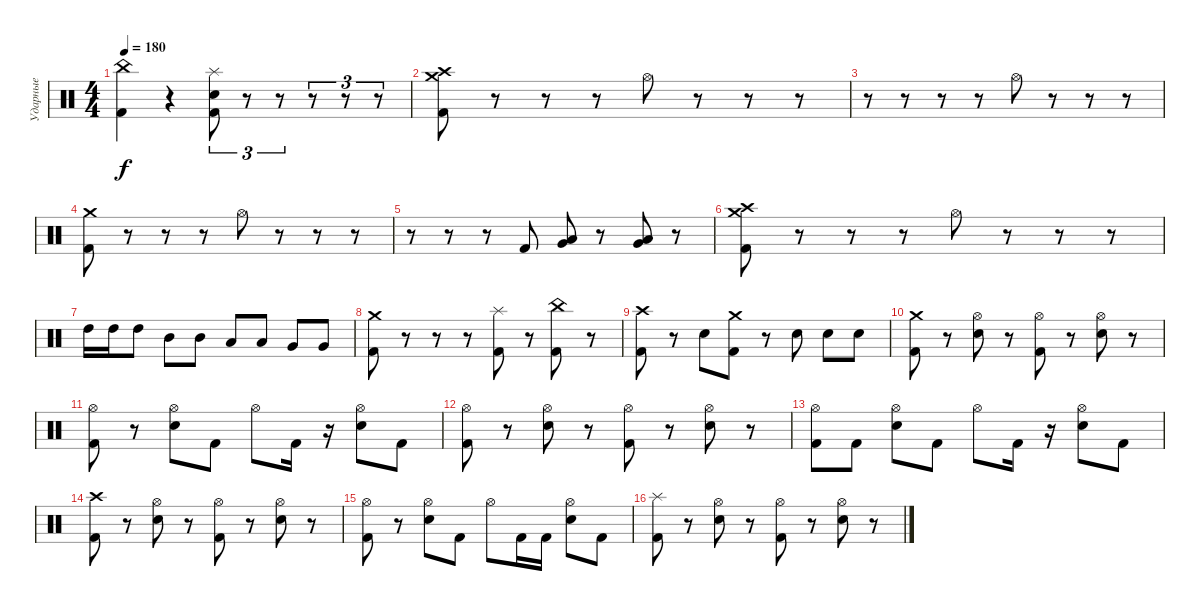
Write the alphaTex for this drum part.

\track ("Ударные" "Ударные") {instrument percussion}
\staff {score}
\articulation defaults
\ts (4 4)
\tempo 180
\clef neutral
\ks c
("Kick (hit) 2" "China (hit)").4{dy f} r.4 ("Kick (hit) 2" "Electric Snare (hit)" "Splash (hit)").8{tu (3 2)} r.8{tu (3 2)} r.8{tu (3 2)} r.8{tu (3 2)} r.8{tu (3 2)} r.8{tu (3 2)} |
("Kick (hit) 2" "Crash high (hit)" "Crash medium (hit)").8 r.8 r.8 r.8 "Hi-Hat (open)".8 r.8 r.8 r.8 |
r.8 r.8 r.8 r.8 "Hi-Hat (open)".8 r.8 r.8 r.8 |
("Kick (hit) 2" "Crash medium (hit)").8 r.8 r.8 r.8 "Hi-Hat (open)".8 r.8 r.8 r.8 |
r.8 r.8 r.8 "Kick (hit) 2".8 ("Very Low Tom (hit)" "Low Tom (hit)").8 r.8 ("Low Floor Tom (hit)" "Very Low Tom (hit)").8 r.8 |
("Kick (hit) 2" "Crash high (hit)" "Crash medium (hit)").8 r.8 r.8 r.8 "Hi-Hat (open)".8 r.8 r.8 r.8 |
"High Tom (hit)".16 "High Tom (hit)".16 "High Tom (hit)".8 "Mid Tom (hit)".8 "Mid Tom (hit)".8 "Low Tom (hit)".8 "Low Tom (hit)".8 "Very Low Tom (hit)".8 "Very Low Tom (hit)".8 |
("Kick (hit) 2" "Crash medium (hit)").8 r.8 r.8 r.8 ("Kick (hit) 2" "Splash (hit)").8 r.8 ("Kick (hit) 2" "China (hit)").8 r.8 |
("Kick (hit) 2" "Crash high (hit)").8 r.8 "Electric Snare (hit)".8 ("Kick (hit) 2" "Crash medium (hit)").8 r.8 "Electric Snare (hit)".8 "Electric Snare (hit)".8 "Electric Snare (hit)".8 |
("Kick (hit) 2" "Crash medium (hit)").8 r.8 ("Electric Snare (hit)" "Hi-Hat (open)").8 r.8 ("Kick (hit) 2" "Hi-Hat (open)").8 r.8 ("Electric Snare (hit)" "Hi-Hat (open)").8 r.8 |
("Kick (hit) 2" "Hi-Hat (open)").8 r.8 ("Electric Snare (hit)" "Hi-Hat (open)").8 "Kick (hit) 2".8 "Hi-Hat (open)".8 "Kick (hit) 2".16 r.16 ("Electric Snare (hit)" "Hi-Hat (open)").8 "Kick (hit) 2".8 |
("Kick (hit) 2" "Hi-Hat (open)").8 r.8 ("Electric Snare (hit)" "Hi-Hat (open)").8 r.8 ("Kick (hit) 2" "Hi-Hat (open)").8 r.8 ("Electric Snare (hit)" "Hi-Hat (open)").8 r.8 |
("Kick (hit) 2" "Hi-Hat (open)").8 "Kick (hit) 2".8 ("Electric Snare (hit)" "Hi-Hat (open)").8 "Kick (hit) 2".8 "Hi-Hat (open)".8 "Kick (hit) 2".16 r.16 ("Electric Snare (hit)" "Hi-Hat (open)").8 "Kick (hit) 2".8 |
("Kick (hit) 2" "Crash high (hit)").8 r.8 ("Electric Snare (hit)" "Hi-Hat (open)").8 r.8 ("Kick (hit) 2" "Hi-Hat (open)").8 r.8 ("Electric Snare (hit)" "Hi-Hat (open)").8 r.8 |
("Kick (hit) 2" "Hi-Hat (open)").8 r.8 ("Electric Snare (hit)" "Hi-Hat (open)").8 "Kick (hit) 2".8 "Hi-Hat (open)".8 "Kick (hit) 2".16 "Kick (hit) 2".16 ("Electric Snare (hit)" "Hi-Hat (open)").8 "Kick (hit) 2".8 |
("Kick (hit) 2" "Splash (hit)").8 r.8 ("Electric Snare (hit)" "Hi-Hat (open)").8 r.8 ("Kick (hit) 2" "Hi-Hat (open)").8 r.8 ("Electric Snare (hit)" "Hi-Hat (open)").8 r.8
